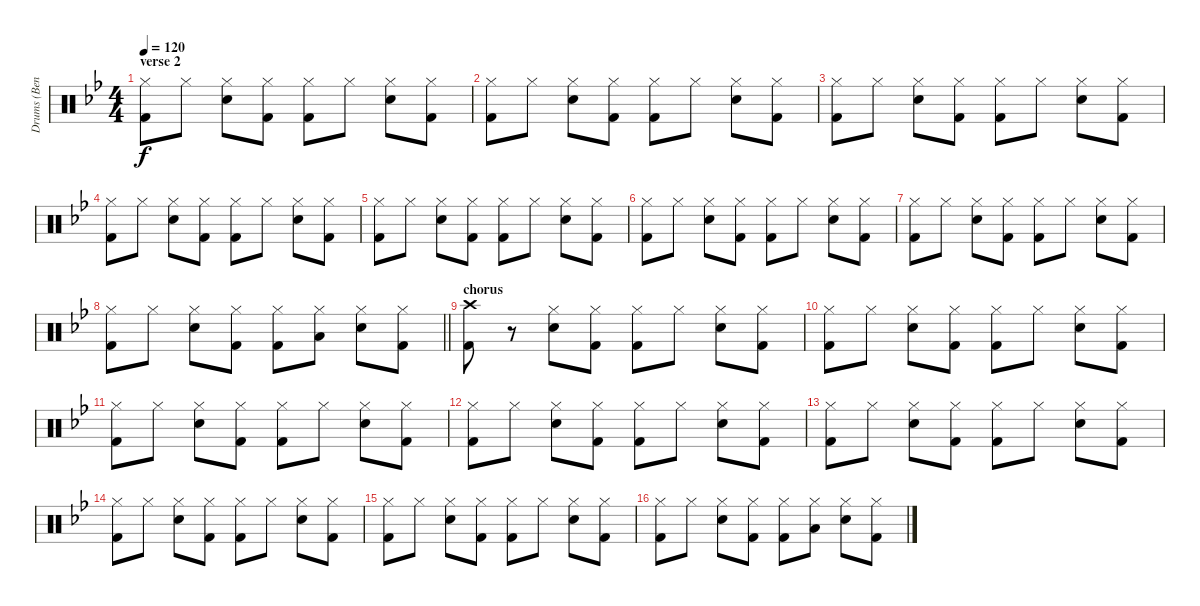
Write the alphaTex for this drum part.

\track ("Drums (Bengerg)" "Drums (Ben") {instrument percussion}
\staff {score}
\articulation defaults
\ts (4 4)
\section ("" "verse 2")
\tempo 120
\clef neutral
\ks bb
("Hi-Hat (closed)" "Kick (hit) 2").8{dy f} "Hi-Hat (closed)".8 ("Hi-Hat (closed)" "Electric Snare (hit)").8 ("Hi-Hat (closed)" "Kick (hit) 2").8 ("Hi-Hat (closed)" "Kick (hit) 2").8 "Hi-Hat (closed)".8 ("Hi-Hat (closed)" "Electric Snare (hit)").8 ("Hi-Hat (closed)" "Kick (hit) 2").8 |
("Hi-Hat (closed)" "Kick (hit) 2").8 "Hi-Hat (closed)".8 ("Hi-Hat (closed)" "Electric Snare (hit)").8 ("Hi-Hat (closed)" "Kick (hit) 2").8 ("Hi-Hat (closed)" "Kick (hit) 2").8 "Hi-Hat (closed)".8 ("Hi-Hat (closed)" "Electric Snare (hit)").8 ("Hi-Hat (closed)" "Kick (hit) 2").8 |
("Hi-Hat (closed)" "Kick (hit) 2").8 "Hi-Hat (closed)".8 ("Hi-Hat (closed)" "Electric Snare (hit)").8 ("Hi-Hat (closed)" "Kick (hit) 2").8 ("Hi-Hat (closed)" "Kick (hit) 2").8 "Hi-Hat (closed)".8 ("Hi-Hat (closed)" "Electric Snare (hit)").8 ("Hi-Hat (closed)" "Kick (hit) 2").8 |
("Hi-Hat (closed)" "Kick (hit) 2").8 "Hi-Hat (closed)".8 ("Hi-Hat (closed)" "Electric Snare (hit)").8 ("Hi-Hat (closed)" "Kick (hit) 2").8 ("Hi-Hat (closed)" "Kick (hit) 2").8 "Hi-Hat (closed)".8 ("Hi-Hat (closed)" "Electric Snare (hit)").8 ("Hi-Hat (closed)" "Kick (hit) 2").8 |
("Hi-Hat (closed)" "Kick (hit) 2").8 "Hi-Hat (closed)".8 ("Hi-Hat (closed)" "Electric Snare (hit)").8 ("Hi-Hat (closed)" "Kick (hit) 2").8 ("Hi-Hat (closed)" "Kick (hit) 2").8 "Hi-Hat (closed)".8 ("Hi-Hat (closed)" "Electric Snare (hit)").8 ("Hi-Hat (closed)" "Kick (hit) 2").8 |
("Hi-Hat (closed)" "Kick (hit) 2").8 "Hi-Hat (closed)".8 ("Hi-Hat (closed)" "Electric Snare (hit)").8 ("Hi-Hat (closed)" "Kick (hit) 2").8 ("Hi-Hat (closed)" "Kick (hit) 2").8 "Hi-Hat (closed)".8 ("Hi-Hat (closed)" "Electric Snare (hit)").8 ("Hi-Hat (closed)" "Kick (hit) 2").8 |
("Hi-Hat (closed)" "Kick (hit) 2").8 "Hi-Hat (closed)".8 ("Hi-Hat (closed)" "Electric Snare (hit)").8 ("Hi-Hat (closed)" "Kick (hit) 2").8 ("Hi-Hat (closed)" "Kick (hit) 2").8 "Hi-Hat (closed)".8 ("Hi-Hat (closed)" "Electric Snare (hit)").8 ("Hi-Hat (closed)" "Kick (hit) 2").8 |
\barLineRight lightlight
("Hi-Hat (closed)" "Kick (hit) 2").8 "Hi-Hat (closed)".8 ("Hi-Hat (closed)" "Electric Snare (hit)").8 ("Hi-Hat (closed)" "Kick (hit) 2").8 ("Hi-Hat (closed)" "Kick (hit) 2").8 ("Hi-Hat (closed)" "Low Tom (hit)").8 ("Hi-Hat (closed)" "Electric Snare (hit)").8 ("Hi-Hat (closed)" "Kick (hit) 2").8 |
\section ("" "chorus")
("Crash high (hit)" "Kick (hit) 2").8 r.8 ("Hi-Hat (closed)" "Electric Snare (hit)").8 ("Hi-Hat (closed)" "Kick (hit) 2").8 ("Hi-Hat (closed)" "Kick (hit) 2").8 "Hi-Hat (closed)".8 ("Hi-Hat (closed)" "Electric Snare (hit)").8 ("Hi-Hat (closed)" "Kick (hit) 2").8 |
("Hi-Hat (closed)" "Kick (hit) 2").8 "Hi-Hat (closed)".8 ("Hi-Hat (closed)" "Electric Snare (hit)").8 ("Hi-Hat (closed)" "Kick (hit) 2").8 ("Hi-Hat (closed)" "Kick (hit) 2").8 "Hi-Hat (closed)".8 ("Hi-Hat (closed)" "Electric Snare (hit)").8 ("Hi-Hat (closed)" "Kick (hit) 2").8 |
("Hi-Hat (closed)" "Kick (hit) 2").8 "Hi-Hat (closed)".8 ("Hi-Hat (closed)" "Electric Snare (hit)").8 ("Hi-Hat (closed)" "Kick (hit) 2").8 ("Hi-Hat (closed)" "Kick (hit) 2").8 "Hi-Hat (closed)".8 ("Hi-Hat (closed)" "Electric Snare (hit)").8 ("Hi-Hat (closed)" "Kick (hit) 2").8 |
("Hi-Hat (closed)" "Kick (hit) 2").8 "Hi-Hat (closed)".8 ("Hi-Hat (closed)" "Electric Snare (hit)").8 ("Hi-Hat (closed)" "Kick (hit) 2").8 ("Hi-Hat (closed)" "Kick (hit) 2").8 "Hi-Hat (closed)".8 ("Hi-Hat (closed)" "Electric Snare (hit)").8 ("Hi-Hat (closed)" "Kick (hit) 2").8 |
("Hi-Hat (closed)" "Kick (hit) 2").8 "Hi-Hat (closed)".8 ("Hi-Hat (closed)" "Electric Snare (hit)").8 ("Hi-Hat (closed)" "Kick (hit) 2").8 ("Hi-Hat (closed)" "Kick (hit) 2").8 "Hi-Hat (closed)".8 ("Hi-Hat (closed)" "Electric Snare (hit)").8 ("Hi-Hat (closed)" "Kick (hit) 2").8 |
("Hi-Hat (closed)" "Kick (hit) 2").8 "Hi-Hat (closed)".8 ("Hi-Hat (closed)" "Electric Snare (hit)").8 ("Hi-Hat (closed)" "Kick (hit) 2").8 ("Hi-Hat (closed)" "Kick (hit) 2").8 "Hi-Hat (closed)".8 ("Hi-Hat (closed)" "Electric Snare (hit)").8 ("Hi-Hat (closed)" "Kick (hit) 2").8 |
("Hi-Hat (closed)" "Kick (hit) 2").8 "Hi-Hat (closed)".8 ("Hi-Hat (closed)" "Electric Snare (hit)").8 ("Hi-Hat (closed)" "Kick (hit) 2").8 ("Hi-Hat (closed)" "Kick (hit) 2").8 "Hi-Hat (closed)".8 ("Hi-Hat (closed)" "Electric Snare (hit)").8 ("Hi-Hat (closed)" "Kick (hit) 2").8 |
("Hi-Hat (closed)" "Kick (hit) 2").8 "Hi-Hat (closed)".8 ("Hi-Hat (closed)" "Electric Snare (hit)").8 ("Hi-Hat (closed)" "Kick (hit) 2").8 ("Hi-Hat (closed)" "Kick (hit) 2").8 ("Hi-Hat (closed)" "Low Tom (hit)").8 ("Hi-Hat (closed)" "Electric Snare (hit)").8 ("Hi-Hat (closed)" "Kick (hit) 2").8
